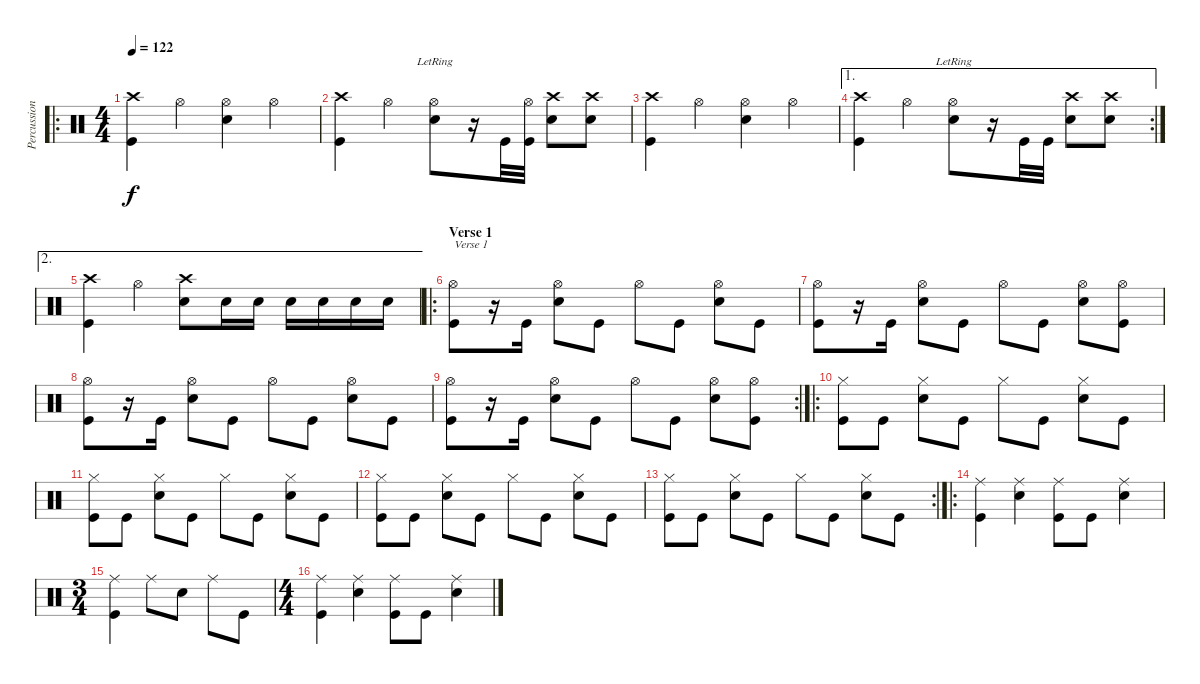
\track ("Percussion" "Percussion") {instrument percussion}
\staff {score}
\articulation defaults
\ro
\ts (4 4)
\tempo 122
\clef neutral
\ks c
("Crash high (hit)" "Kick (hit)").4{dy f} "Hi-Hat (open)".4 ("Hi-Hat (open)" "Snare (hit) 2").4 "Hi-Hat (open)".4 |
("Crash high (hit)" "Kick (hit)").4 "Hi-Hat (open)".4 ("Hi-Hat (open)"{lr} "Snare (hit) 2").8 r.16 "Kick (hit)".32 ("Hi-Hat (open)" "Kick (hit)").32 ("Crash high (hit)" "Snare (hit) 2").8 ("Crash high (hit)" "Snare (hit) 2").8 |
("Crash high (hit)" "Kick (hit)").4 "Hi-Hat (open)".4 ("Hi-Hat (open)" "Snare (hit) 2").4 "Hi-Hat (open)".4 |
\ae 1
\rc 2
("Crash high (hit)" "Kick (hit)").4 "Hi-Hat (open)".4 ("Hi-Hat (open)"{lr} "Snare (hit) 2").8 r.16 "Kick (hit)".32 "Kick (hit)".32 ("Crash high (hit)" "Snare (hit) 2").8 ("Crash high (hit)" "Snare (hit) 2").8 |
\ae 2
("Crash high (hit)" "Kick (hit)").4 "Hi-Hat (open)".4 ("Crash high (hit)" "Snare (hit) 2").8 "Snare (hit) 2".16 "Snare (hit) 2".16 "Snare (hit) 2".16 "Snare (hit) 2".16 "Snare (hit) 2".16 "Snare (hit) 2".16 |
\ro
\section ("" "Verse 1")
("Hi-Hat (open)" "Kick (hit)").8{txt "Verse 1"} r.16 "Kick (hit)".16 ("Hi-Hat (open)" "Snare (hit) 2").8 "Kick (hit)".8 "Hi-Hat (open)".8 "Kick (hit)".8 ("Hi-Hat (open)" "Snare (hit) 2").8 "Kick (hit)".8 |
("Hi-Hat (open)" "Kick (hit)").8 r.16 "Kick (hit)".16 ("Hi-Hat (open)" "Snare (hit) 2").8 "Kick (hit)".8 "Hi-Hat (open)".8 "Kick (hit)".8 ("Hi-Hat (open)" "Snare (hit) 2").8 ("Hi-Hat (open)" "Kick (hit)").8 |
("Hi-Hat (open)" "Kick (hit)").8 r.16 "Kick (hit)".16 ("Hi-Hat (open)" "Snare (hit) 2").8 "Kick (hit)".8 "Hi-Hat (open)".8 "Kick (hit)".8 ("Hi-Hat (open)" "Snare (hit) 2").8 "Kick (hit)".8 |
\rc 2
("Hi-Hat (open)" "Kick (hit)").8 r.16 "Kick (hit)".16 ("Hi-Hat (open)" "Snare (hit) 2").8 "Kick (hit)".8 "Hi-Hat (open)".8 "Kick (hit)".8 ("Hi-Hat (open)" "Snare (hit) 2").8 ("Hi-Hat (open)" "Kick (hit)").8 |
\ro
("Hi-Hat (closed)" "Kick (hit)").8 "Kick (hit)".8 ("Hi-Hat (closed)" "Snare (hit) 2").8 "Kick (hit)".8 "Hi-Hat (closed)".8 "Kick (hit)".8 ("Hi-Hat (closed)" "Snare (hit) 2").8 "Kick (hit)".8 |
("Hi-Hat (closed)" "Kick (hit)").8 "Kick (hit)".8 ("Hi-Hat (closed)" "Snare (hit) 2").8 "Kick (hit)".8 "Hi-Hat (closed)".8 "Kick (hit)".8 ("Hi-Hat (closed)" "Snare (hit) 2").8 "Kick (hit)".8 |
("Hi-Hat (closed)" "Kick (hit)").8 "Kick (hit)".8 ("Hi-Hat (closed)" "Snare (hit) 2").8 "Kick (hit)".8 "Hi-Hat (closed)".8 "Kick (hit)".8 ("Hi-Hat (closed)" "Snare (hit) 2").8 "Kick (hit)".8 |
\rc 2
("Hi-Hat (closed)" "Kick (hit)").8 "Kick (hit)".8 ("Hi-Hat (closed)" "Snare (hit) 2").8 "Kick (hit)".8 "Hi-Hat (closed)".8 "Kick (hit)".8 ("Hi-Hat (closed)" "Snare (hit) 2").8 "Kick (hit)".8 |
\ro
("Ride (middle)" "Kick (hit)").4 ("Ride (middle)" "Snare (hit) 2").4 ("Ride (middle)" "Kick (hit)").8 "Kick (hit)".8 ("Ride (middle)" "Snare (hit) 2").4 |
\ts (3 4)
("Ride (middle)" "Kick (hit)").4 "Ride (middle)".8 "Snare (hit) 2".8 "Ride (middle)".8 "Kick (hit)".8 |
\ts (4 4)
("Ride (middle)" "Kick (hit)").4 ("Ride (middle)" "Snare (hit) 2").4 ("Ride (middle)" "Kick (hit)").8 "Kick (hit)".8 ("Ride (middle)" "Snare (hit) 2").4
